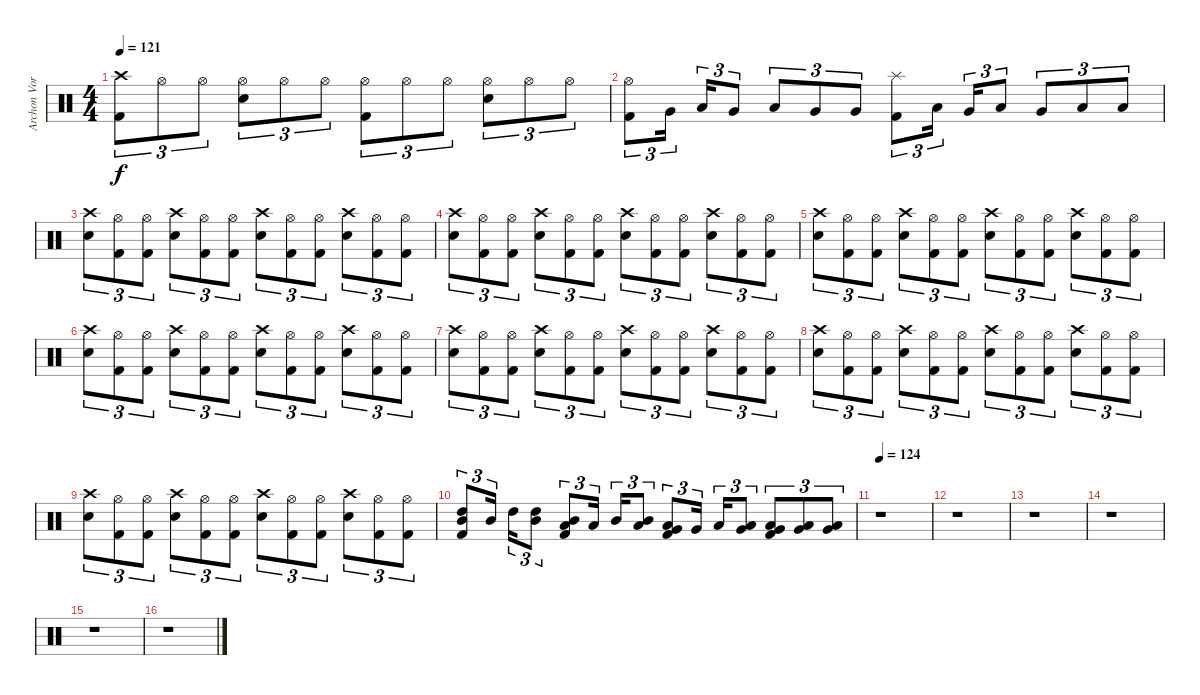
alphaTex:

\track ("Archon Vorskaath" "Archon Vor") {instrument percussion}
\staff {score}
\articulation defaults
\ts (4 4)
\tempo 121
\clef neutral
\ks c
("Crash high (hit)" "Kick (hit) 2").8{tu (3 2) dy f} "Hi-Hat (open)".8{tu (3 2)} "Hi-Hat (open)".8{tu (3 2)} ("Hi-Hat (open)" "Electric Snare (hit)").8{tu (3 2)} "Hi-Hat (open)".8{tu (3 2)} "Hi-Hat (open)".8{tu (3 2)} ("Hi-Hat (open)" "Kick (hit) 2").8{tu (3 2)} "Hi-Hat (open)".8{tu (3 2)} "Hi-Hat (open)".8{tu (3 2)} ("Hi-Hat (open)" "Electric Snare (hit)").8{tu (3 2)} "Hi-Hat (open)".8{tu (3 2)} "Hi-Hat (open)".8{tu (3 2)} |
("Hi-Hat (open)" "Kick (hit) 2").8{tu (3 2)} "Very Low Tom (hit)".16{tu (3 2) beam splitsecondary} "Low Tom (hit)".16{tu (3 2)} "Very Low Tom (hit)".8{tu (3 2)} "Low Tom (hit)".8{tu (3 2)} "Very Low Tom (hit)".8{tu (3 2)} "Very Low Tom (hit)".8{tu (3 2)} ("Splash (hit)" "Kick (hit) 2").8{tu (3 2)} "Low Floor Tom (hit)".16{tu (3 2) beam splitsecondary} "Very Low Tom (hit)".16{tu (3 2)} "Low Floor Tom (hit)".8{tu (3 2)} "Very Low Tom (hit)".8{tu (3 2)} "Low Floor Tom (hit)".8{tu (3 2)} "Low Floor Tom (hit)".8{tu (3 2)} |
("Crash high (hit)" "Electric Snare (hit)").8{tu (3 2)} ("Hi-Hat (open)" "Kick (hit) 2").8{tu (3 2)} ("Hi-Hat (open)" "Kick (hit) 2").8{tu (3 2)} ("Crash high (hit)" "Electric Snare (hit)").8{tu (3 2)} ("Hi-Hat (open)" "Kick (hit) 2").8{tu (3 2)} ("Hi-Hat (open)" "Kick (hit) 2").8{tu (3 2)} ("Crash high (hit)" "Electric Snare (hit)").8{tu (3 2)} ("Hi-Hat (open)" "Kick (hit) 2").8{tu (3 2)} ("Hi-Hat (open)" "Kick (hit) 2").8{tu (3 2)} ("Crash high (hit)" "Electric Snare (hit)").8{tu (3 2)} ("Hi-Hat (open)" "Kick (hit) 2").8{tu (3 2)} ("Hi-Hat (open)" "Kick (hit) 2").8{tu (3 2)} |
("Crash high (hit)" "Electric Snare (hit)").8{tu (3 2)} ("Hi-Hat (open)" "Kick (hit) 2").8{tu (3 2)} ("Hi-Hat (open)" "Kick (hit) 2").8{tu (3 2)} ("Crash high (hit)" "Electric Snare (hit)").8{tu (3 2)} ("Hi-Hat (open)" "Kick (hit) 2").8{tu (3 2)} ("Hi-Hat (open)" "Kick (hit) 2").8{tu (3 2)} ("Crash high (hit)" "Electric Snare (hit)").8{tu (3 2)} ("Hi-Hat (open)" "Kick (hit) 2").8{tu (3 2)} ("Hi-Hat (open)" "Kick (hit) 2").8{tu (3 2)} ("Crash high (hit)" "Electric Snare (hit)").8{tu (3 2)} ("Hi-Hat (open)" "Kick (hit) 2").8{tu (3 2)} ("Hi-Hat (open)" "Kick (hit) 2").8{tu (3 2)} |
("Crash high (hit)" "Electric Snare (hit)").8{tu (3 2)} ("Hi-Hat (open)" "Kick (hit) 2").8{tu (3 2)} ("Hi-Hat (open)" "Kick (hit) 2").8{tu (3 2)} ("Crash high (hit)" "Electric Snare (hit)").8{tu (3 2)} ("Hi-Hat (open)" "Kick (hit) 2").8{tu (3 2)} ("Hi-Hat (open)" "Kick (hit) 2").8{tu (3 2)} ("Crash high (hit)" "Electric Snare (hit)").8{tu (3 2)} ("Hi-Hat (open)" "Kick (hit) 2").8{tu (3 2)} ("Hi-Hat (open)" "Kick (hit) 2").8{tu (3 2)} ("Crash high (hit)" "Electric Snare (hit)").8{tu (3 2)} ("Hi-Hat (open)" "Kick (hit) 2").8{tu (3 2)} ("Hi-Hat (open)" "Kick (hit) 2").8{tu (3 2)} |
("Crash high (hit)" "Electric Snare (hit)").8{tu (3 2)} ("Hi-Hat (open)" "Kick (hit) 2").8{tu (3 2)} ("Hi-Hat (open)" "Kick (hit) 2").8{tu (3 2)} ("Crash high (hit)" "Electric Snare (hit)").8{tu (3 2)} ("Hi-Hat (open)" "Kick (hit) 2").8{tu (3 2)} ("Hi-Hat (open)" "Kick (hit) 2").8{tu (3 2)} ("Crash high (hit)" "Electric Snare (hit)").8{tu (3 2)} ("Hi-Hat (open)" "Kick (hit) 2").8{tu (3 2)} ("Hi-Hat (open)" "Kick (hit) 2").8{tu (3 2)} ("Crash high (hit)" "Electric Snare (hit)").8{tu (3 2)} ("Hi-Hat (open)" "Kick (hit) 2").8{tu (3 2)} ("Hi-Hat (open)" "Kick (hit) 2").8{tu (3 2)} |
("Crash high (hit)" "Electric Snare (hit)").8{tu (3 2)} ("Hi-Hat (open)" "Kick (hit) 2").8{tu (3 2)} ("Hi-Hat (open)" "Kick (hit) 2").8{tu (3 2)} ("Crash high (hit)" "Electric Snare (hit)").8{tu (3 2)} ("Hi-Hat (open)" "Kick (hit) 2").8{tu (3 2)} ("Hi-Hat (open)" "Kick (hit) 2").8{tu (3 2)} ("Crash high (hit)" "Electric Snare (hit)").8{tu (3 2)} ("Hi-Hat (open)" "Kick (hit) 2").8{tu (3 2)} ("Hi-Hat (open)" "Kick (hit) 2").8{tu (3 2)} ("Crash high (hit)" "Electric Snare (hit)").8{tu (3 2)} ("Hi-Hat (open)" "Kick (hit) 2").8{tu (3 2)} ("Hi-Hat (open)" "Kick (hit) 2").8{tu (3 2)} |
("Crash high (hit)" "Electric Snare (hit)").8{tu (3 2)} ("Hi-Hat (open)" "Kick (hit) 2").8{tu (3 2)} ("Hi-Hat (open)" "Kick (hit) 2").8{tu (3 2)} ("Crash high (hit)" "Electric Snare (hit)").8{tu (3 2)} ("Hi-Hat (open)" "Kick (hit) 2").8{tu (3 2)} ("Hi-Hat (open)" "Kick (hit) 2").8{tu (3 2)} ("Crash high (hit)" "Electric Snare (hit)").8{tu (3 2)} ("Hi-Hat (open)" "Kick (hit) 2").8{tu (3 2)} ("Hi-Hat (open)" "Kick (hit) 2").8{tu (3 2)} ("Crash high (hit)" "Electric Snare (hit)").8{tu (3 2)} ("Hi-Hat (open)" "Kick (hit) 2").8{tu (3 2)} ("Hi-Hat (open)" "Kick (hit) 2").8{tu (3 2)} |
("Crash high (hit)" "Electric Snare (hit)").8{tu (3 2)} ("Hi-Hat (open)" "Kick (hit) 2").8{tu (3 2)} ("Hi-Hat (open)" "Kick (hit) 2").8{tu (3 2)} ("Crash high (hit)" "Electric Snare (hit)").8{tu (3 2)} ("Hi-Hat (open)" "Kick (hit) 2").8{tu (3 2)} ("Hi-Hat (open)" "Kick (hit) 2").8{tu (3 2)} ("Crash high (hit)" "Electric Snare (hit)").8{tu (3 2)} ("Hi-Hat (open)" "Kick (hit) 2").8{tu (3 2)} ("Hi-Hat (open)" "Kick (hit) 2").8{tu (3 2)} ("Crash high (hit)" "Electric Snare (hit)").8{tu (3 2)} ("Hi-Hat (open)" "Kick (hit) 2").8{tu (3 2)} ("Hi-Hat (open)" "Kick (hit) 2").8{tu (3 2)} |
("High Tom (hit)" "Mid Tom (hit)" "Kick (hit) 2").8{tu (3 2)} "Mid Tom (hit)".16{tu (3 2) beam splitsecondary} "High Tom (hit)".16{tu (3 2)} ("High Tom (hit)" "Mid Tom (hit)").8{tu (3 2)} ("Mid Tom (hit)" "Low Tom (hit)" "Kick (hit) 2").8{tu (3 2)} "Low Tom (hit)".16{tu (3 2) beam splitsecondary} "Mid Tom (hit)".16{tu (3 2)} ("Mid Tom (hit)" "Low Tom (hit)").8{tu (3 2)} ("Low Tom (hit)" "Very Low Tom (hit)" "Kick (hit) 2").8{tu (3 2)} "Very Low Tom (hit)".16{tu (3 2) beam splitsecondary} "Low Tom (hit)".16{tu (3 2)} ("Low Tom (hit)" "Very Low Tom (hit)").8{tu (3 2)} ("Very Low Tom (hit)" "Low Floor Tom (hit)" "Kick (hit) 2").8{tu (3 2)} ("Very Low Tom (hit)" "Low Floor Tom (hit)").8{tu (3 2)} ("Very Low Tom (hit)" "Low Floor Tom (hit)").8{tu (3 2)} |
\tempo 124
r.1 |
r.1 |
r.1 |
r.1 |
r.1 |
r.1
